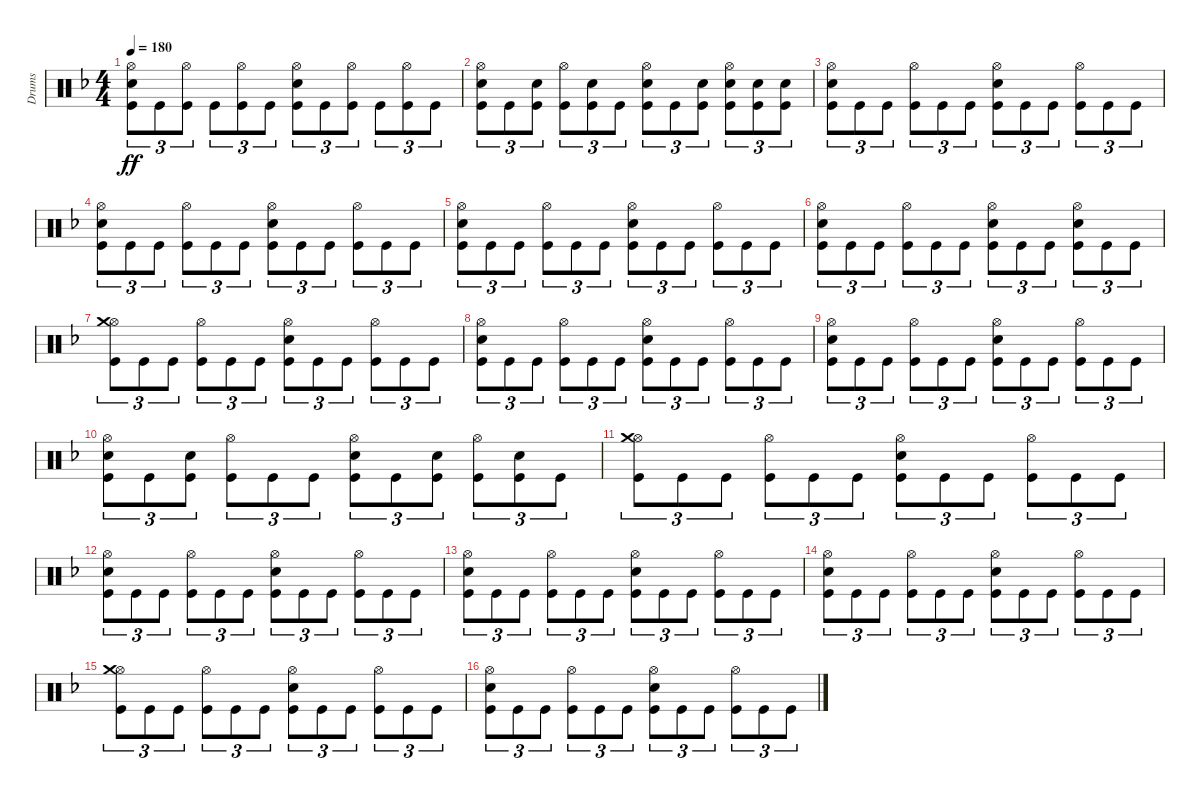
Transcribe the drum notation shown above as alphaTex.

\track ("Drums" "Drums") {instrument percussion}
\staff {score}
\articulation defaults
\ts (4 4)
\tempo 180
\clef neutral
\ks dminor
("Hi-Hat (open)" "Snare (hit) 2" "Kick (hit)").8{tu (3 2) dy ff} "Kick (hit)".8{tu (3 2)} ("Hi-Hat (open)" "Kick (hit)").8{tu (3 2)} "Kick (hit)".8{tu (3 2)} ("Hi-Hat (open)" "Kick (hit)").8{tu (3 2)} "Kick (hit)".8{tu (3 2)} ("Hi-Hat (open)" "Snare (hit) 2" "Kick (hit)").8{tu (3 2)} "Kick (hit)".8{tu (3 2)} ("Hi-Hat (open)" "Kick (hit)").8{tu (3 2)} "Kick (hit)".8{tu (3 2)} ("Hi-Hat (open)" "Kick (hit)").8{tu (3 2)} "Kick (hit)".8{tu (3 2)} |
("Hi-Hat (open)" "Snare (hit) 2" "Kick (hit)").8{tu (3 2)} "Kick (hit)".8{tu (3 2)} ("Snare (hit) 2" "Kick (hit)").8{tu (3 2)} ("Hi-Hat (open)" "Kick (hit)").8{tu (3 2)} ("Snare (hit) 2" "Kick (hit)").8{tu (3 2)} "Kick (hit)".8{tu (3 2)} ("Hi-Hat (open)" "Snare (hit) 2" "Kick (hit)").8{tu (3 2)} "Kick (hit)".8{tu (3 2)} ("Snare (hit) 2" "Kick (hit)").8{tu (3 2)} ("Hi-Hat (open)" "Snare (hit) 2" "Kick (hit)").8{tu (3 2)} ("Snare (hit) 2" "Kick (hit)").8{tu (3 2)} ("Snare (hit) 2" "Kick (hit)").8{tu (3 2)} |
("Hi-Hat (open)" "Snare (hit) 2" "Kick (hit)").8{tu (3 2)} "Kick (hit)".8{tu (3 2)} "Kick (hit)".8{tu (3 2)} ("Hi-Hat (open)" "Kick (hit)").8{tu (3 2)} "Kick (hit)".8{tu (3 2)} "Kick (hit)".8{tu (3 2)} ("Hi-Hat (open)" "Snare (hit) 2" "Kick (hit)").8{tu (3 2)} "Kick (hit)".8{tu (3 2)} "Kick (hit)".8{tu (3 2)} ("Hi-Hat (open)" "Kick (hit)").8{tu (3 2)} "Kick (hit)".8{tu (3 2)} "Kick (hit)".8{tu (3 2)} |
("Hi-Hat (open)" "Snare (hit) 2" "Kick (hit)").8{tu (3 2)} "Kick (hit)".8{tu (3 2)} "Kick (hit)".8{tu (3 2)} ("Hi-Hat (open)" "Kick (hit)").8{tu (3 2)} "Kick (hit)".8{tu (3 2)} "Kick (hit)".8{tu (3 2)} ("Hi-Hat (open)" "Snare (hit) 2" "Kick (hit)").8{tu (3 2)} "Kick (hit)".8{tu (3 2)} "Kick (hit)".8{tu (3 2)} ("Hi-Hat (open)" "Kick (hit)").8{tu (3 2)} "Kick (hit)".8{tu (3 2)} "Kick (hit)".8{tu (3 2)} |
("Hi-Hat (open)" "Snare (hit) 2" "Kick (hit)").8{tu (3 2)} "Kick (hit)".8{tu (3 2)} "Kick (hit)".8{tu (3 2)} ("Hi-Hat (open)" "Kick (hit)").8{tu (3 2)} "Kick (hit)".8{tu (3 2)} "Kick (hit)".8{tu (3 2)} ("Hi-Hat (open)" "Snare (hit) 2" "Kick (hit)").8{tu (3 2)} "Kick (hit)".8{tu (3 2)} "Kick (hit)".8{tu (3 2)} ("Hi-Hat (open)" "Kick (hit)").8{tu (3 2)} "Kick (hit)".8{tu (3 2)} "Kick (hit)".8{tu (3 2)} |
("Hi-Hat (open)" "Snare (hit) 2" "Kick (hit)").8{tu (3 2)} "Kick (hit)".8{tu (3 2)} "Kick (hit)".8{tu (3 2)} ("Hi-Hat (open)" "Kick (hit)").8{tu (3 2)} "Kick (hit)".8{tu (3 2)} "Kick (hit)".8{tu (3 2)} ("Hi-Hat (open)" "Snare (hit) 2" "Kick (hit)").8{tu (3 2)} "Kick (hit)".8{tu (3 2)} "Kick (hit)".8{tu (3 2)} ("Hi-Hat (open)" "Snare (hit) 2" "Kick (hit)").8{tu (3 2)} "Kick (hit)".8{tu (3 2)} "Kick (hit)".8{tu (3 2)} |
("Hi-Hat (open)" "Crash medium (hit)" "Kick (hit)").8{tu (3 2)} "Kick (hit)".8{tu (3 2)} "Kick (hit)".8{tu (3 2)} ("Hi-Hat (open)" "Kick (hit)").8{tu (3 2)} "Kick (hit)".8{tu (3 2)} "Kick (hit)".8{tu (3 2)} ("Hi-Hat (open)" "Snare (hit) 2" "Kick (hit)").8{tu (3 2)} "Kick (hit)".8{tu (3 2)} "Kick (hit)".8{tu (3 2)} ("Hi-Hat (open)" "Kick (hit)").8{tu (3 2)} "Kick (hit)".8{tu (3 2)} "Kick (hit)".8{tu (3 2)} |
("Hi-Hat (open)" "Snare (hit) 2" "Kick (hit)").8{tu (3 2)} "Kick (hit)".8{tu (3 2)} "Kick (hit)".8{tu (3 2)} ("Hi-Hat (open)" "Kick (hit)").8{tu (3 2)} "Kick (hit)".8{tu (3 2)} "Kick (hit)".8{tu (3 2)} ("Hi-Hat (open)" "Snare (hit) 2" "Kick (hit)").8{tu (3 2)} "Kick (hit)".8{tu (3 2)} "Kick (hit)".8{tu (3 2)} ("Hi-Hat (open)" "Kick (hit)").8{tu (3 2)} "Kick (hit)".8{tu (3 2)} "Kick (hit)".8{tu (3 2)} |
("Hi-Hat (open)" "Snare (hit) 2" "Kick (hit)").8{tu (3 2)} "Kick (hit)".8{tu (3 2)} "Kick (hit)".8{tu (3 2)} ("Hi-Hat (open)" "Kick (hit)").8{tu (3 2)} "Kick (hit)".8{tu (3 2)} "Kick (hit)".8{tu (3 2)} ("Hi-Hat (open)" "Snare (hit) 2" "Kick (hit)").8{tu (3 2)} "Kick (hit)".8{tu (3 2)} "Kick (hit)".8{tu (3 2)} ("Hi-Hat (open)" "Kick (hit)").8{tu (3 2)} "Kick (hit)".8{tu (3 2)} "Kick (hit)".8{tu (3 2)} |
("Hi-Hat (open)" "Snare (hit) 2" "Kick (hit)").8{tu (3 2)} "Kick (hit)".8{tu (3 2)} ("Snare (hit) 2" "Kick (hit)").8{tu (3 2)} ("Hi-Hat (open)" "Kick (hit)").8{tu (3 2)} "Kick (hit)".8{tu (3 2)} "Kick (hit)".8{tu (3 2)} ("Hi-Hat (open)" "Snare (hit) 2" "Kick (hit)").8{tu (3 2)} "Kick (hit)".8{tu (3 2)} ("Snare (hit) 2" "Kick (hit)").8{tu (3 2)} ("Hi-Hat (open)" "Kick (hit)").8{tu (3 2)} ("Snare (hit) 2" "Kick (hit)").8{tu (3 2)} "Kick (hit)".8{tu (3 2)} |
("Hi-Hat (open)" "Crash medium (hit)" "Kick (hit)").8{tu (3 2)} "Kick (hit)".8{tu (3 2)} "Kick (hit)".8{tu (3 2)} ("Hi-Hat (open)" "Kick (hit)").8{tu (3 2)} "Kick (hit)".8{tu (3 2)} "Kick (hit)".8{tu (3 2)} ("Hi-Hat (open)" "Snare (hit) 2" "Kick (hit)").8{tu (3 2)} "Kick (hit)".8{tu (3 2)} "Kick (hit)".8{tu (3 2)} ("Hi-Hat (open)" "Kick (hit)").8{tu (3 2)} "Kick (hit)".8{tu (3 2)} "Kick (hit)".8{tu (3 2)} |
("Hi-Hat (open)" "Snare (hit) 2" "Kick (hit)").8{tu (3 2)} "Kick (hit)".8{tu (3 2)} "Kick (hit)".8{tu (3 2)} ("Hi-Hat (open)" "Kick (hit)").8{tu (3 2)} "Kick (hit)".8{tu (3 2)} "Kick (hit)".8{tu (3 2)} ("Hi-Hat (open)" "Snare (hit) 2" "Kick (hit)").8{tu (3 2)} "Kick (hit)".8{tu (3 2)} "Kick (hit)".8{tu (3 2)} ("Hi-Hat (open)" "Kick (hit)").8{tu (3 2)} "Kick (hit)".8{tu (3 2)} "Kick (hit)".8{tu (3 2)} |
("Hi-Hat (open)" "Snare (hit) 2" "Kick (hit)").8{tu (3 2)} "Kick (hit)".8{tu (3 2)} "Kick (hit)".8{tu (3 2)} ("Hi-Hat (open)" "Kick (hit)").8{tu (3 2)} "Kick (hit)".8{tu (3 2)} "Kick (hit)".8{tu (3 2)} ("Hi-Hat (open)" "Snare (hit) 2" "Kick (hit)").8{tu (3 2)} "Kick (hit)".8{tu (3 2)} "Kick (hit)".8{tu (3 2)} ("Hi-Hat (open)" "Kick (hit)").8{tu (3 2)} "Kick (hit)".8{tu (3 2)} "Kick (hit)".8{tu (3 2)} |
("Hi-Hat (open)" "Snare (hit) 2" "Kick (hit)").8{tu (3 2)} "Kick (hit)".8{tu (3 2)} "Kick (hit)".8{tu (3 2)} ("Hi-Hat (open)" "Kick (hit)").8{tu (3 2)} "Kick (hit)".8{tu (3 2)} "Kick (hit)".8{tu (3 2)} ("Hi-Hat (open)" "Snare (hit) 2" "Kick (hit)").8{tu (3 2)} "Kick (hit)".8{tu (3 2)} "Kick (hit)".8{tu (3 2)} ("Hi-Hat (open)" "Kick (hit)").8{tu (3 2)} "Kick (hit)".8{tu (3 2)} "Kick (hit)".8{tu (3 2)} |
("Hi-Hat (open)" "Crash medium (hit)" "Kick (hit)").8{tu (3 2)} "Kick (hit)".8{tu (3 2)} "Kick (hit)".8{tu (3 2)} ("Hi-Hat (open)" "Kick (hit)").8{tu (3 2)} "Kick (hit)".8{tu (3 2)} "Kick (hit)".8{tu (3 2)} ("Hi-Hat (open)" "Snare (hit) 2" "Kick (hit)").8{tu (3 2)} "Kick (hit)".8{tu (3 2)} "Kick (hit)".8{tu (3 2)} ("Hi-Hat (open)" "Kick (hit)").8{tu (3 2)} "Kick (hit)".8{tu (3 2)} "Kick (hit)".8{tu (3 2)} |
("Hi-Hat (open)" "Snare (hit) 2" "Kick (hit)").8{tu (3 2)} "Kick (hit)".8{tu (3 2)} "Kick (hit)".8{tu (3 2)} ("Hi-Hat (open)" "Kick (hit)").8{tu (3 2)} "Kick (hit)".8{tu (3 2)} "Kick (hit)".8{tu (3 2)} ("Hi-Hat (open)" "Snare (hit) 2" "Kick (hit)").8{tu (3 2)} "Kick (hit)".8{tu (3 2)} "Kick (hit)".8{tu (3 2)} ("Hi-Hat (open)" "Kick (hit)").8{tu (3 2)} "Kick (hit)".8{tu (3 2)} "Kick (hit)".8{tu (3 2)}
